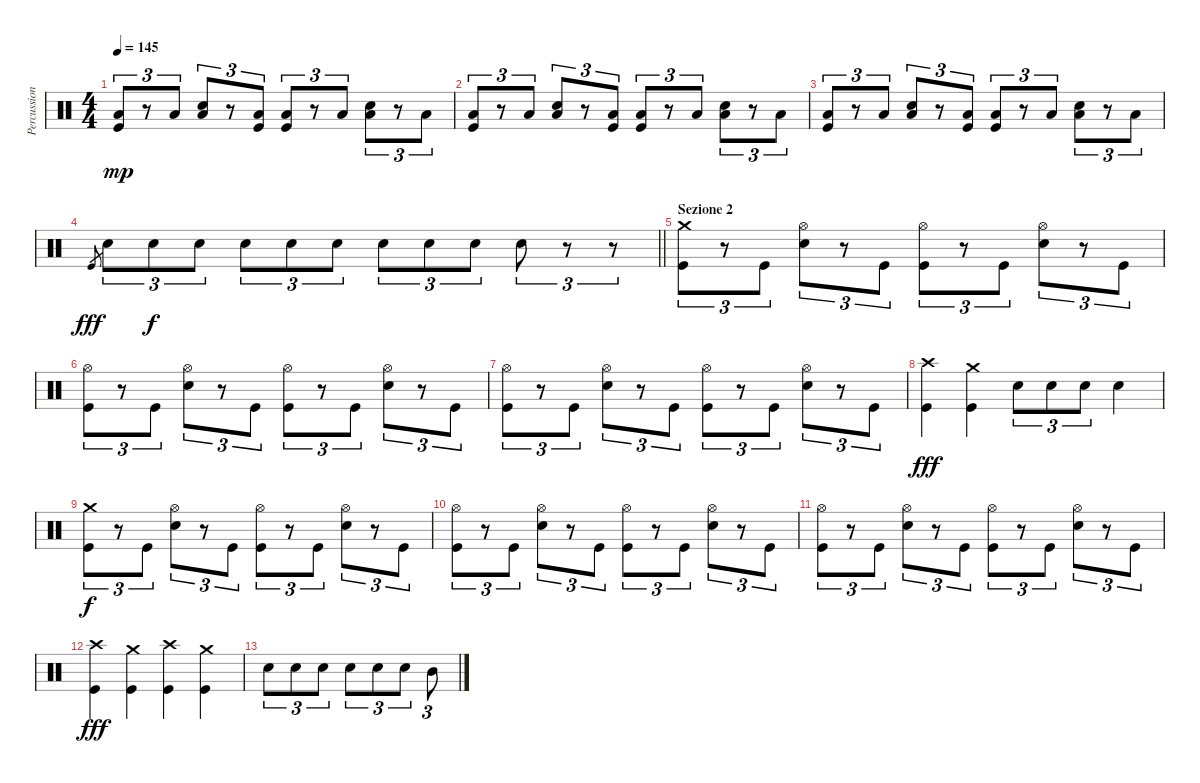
\track ("Percussioni" "Percussion") {instrument percussion}
\staff {score}
\articulation defaults
\ts (4 4)
\tempo 145
\clef neutral
\ks c
("Low Floor Tom (hit)" "Kick (hit)").8{tu (3 2) dy mp} r.8{tu (3 2)} "Low Floor Tom (hit)".8{tu (3 2)} ("Low Floor Tom (hit)" "Snare (hit) 2").8{tu (3 2)} r.8{tu (3 2)} ("Low Floor Tom (hit)" "Kick (hit)").8{tu (3 2)} ("Low Floor Tom (hit)" "Kick (hit)").8{tu (3 2)} r.8{tu (3 2)} "Low Floor Tom (hit)".8{tu (3 2)} ("Low Floor Tom (hit)" "Snare (hit) 2").8{tu (3 2)} r.8{tu (3 2)} "Low Floor Tom (hit)".8{tu (3 2)} |
("Low Floor Tom (hit)" "Kick (hit)").8{tu (3 2)} r.8{tu (3 2)} "Low Floor Tom (hit)".8{tu (3 2)} ("Low Floor Tom (hit)" "Snare (hit) 2").8{tu (3 2)} r.8{tu (3 2)} ("Low Floor Tom (hit)" "Kick (hit)").8{tu (3 2)} ("Low Floor Tom (hit)" "Kick (hit)").8{tu (3 2)} r.8{tu (3 2)} "Low Floor Tom (hit)".8{tu (3 2)} ("Low Floor Tom (hit)" "Snare (hit) 2").8{tu (3 2)} r.8{tu (3 2)} "Low Floor Tom (hit)".8{tu (3 2)} |
("Low Floor Tom (hit)" "Kick (hit)").8{tu (3 2)} r.8{tu (3 2)} "Low Floor Tom (hit)".8{tu (3 2)} ("Low Floor Tom (hit)" "Snare (hit) 2").8{tu (3 2)} r.8{tu (3 2)} ("Low Floor Tom (hit)" "Kick (hit)").8{tu (3 2)} ("Low Floor Tom (hit)" "Kick (hit)").8{tu (3 2)} r.8{tu (3 2)} "Low Floor Tom (hit)".8{tu (3 2)} ("Low Floor Tom (hit)" "Snare (hit) 2").8{tu (3 2)} r.8{tu (3 2)} "Low Floor Tom (hit)".8{tu (3 2)} |
\barLineRight lightlight "Kick (hit)".8{gr dy fff} "Snare (hit) 2".8{tu (3 2)} "Snare (hit) 2".8{tu (3 2) dy f} "Snare (hit) 2".8{tu (3 2)} "Snare (hit) 2".8{tu (3 2)} "Snare (hit) 2".8{tu (3 2)} "Snare (hit) 2".8{tu (3 2)} "Snare (hit) 2".8{tu (3 2)} "Snare (hit) 2".8{tu (3 2)} "Snare (hit) 2".8{tu (3 2)} "Snare (hit) 2".8{tu (3 2)}
r.8{tu (3 2)} r.8{tu (3 2)} |
\section ("" "Sezione 2")
("Crash medium (hit)" "Kick (hit)").8{tu (3 2)} r.8{tu (3 2)} "Kick (hit)".8{tu (3 2)} ("Hi-Hat (open)" "Snare (hit) 2").8{tu (3 2)} r.8{tu (3 2)} "Kick (hit)".8{tu (3 2)} ("Hi-Hat (open)" "Kick (hit)").8{tu (3 2)} r.8{tu (3 2)} "Kick (hit)".8{tu (3 2)} ("Hi-Hat (open)" "Snare (hit) 2").8{tu (3 2)} r.8{tu (3 2)} "Kick (hit)".8{tu (3 2)} |
("Hi-Hat (open)" "Kick (hit)").8{tu (3 2)} r.8{tu (3 2)} "Kick (hit)".8{tu (3 2)} ("Hi-Hat (open)" "Snare (hit) 2").8{tu (3 2)} r.8{tu (3 2)} "Kick (hit)".8{tu (3 2)} ("Hi-Hat (open)" "Kick (hit)").8{tu (3 2)} r.8{tu (3 2)} "Kick (hit)".8{tu (3 2)} ("Hi-Hat (open)" "Snare (hit) 2").8{tu (3 2)} r.8{tu (3 2)} "Kick (hit)".8{tu (3 2)} |
("Hi-Hat (open)" "Kick (hit)").8{tu (3 2)} r.8{tu (3 2)} "Kick (hit)".8{tu (3 2)} ("Hi-Hat (open)" "Snare (hit) 2").8{tu (3 2)} r.8{tu (3 2)} "Kick (hit)".8{tu (3 2)} ("Hi-Hat (open)" "Kick (hit)").8{tu (3 2)} r.8{tu (3 2)} "Kick (hit)".8{tu (3 2)} ("Hi-Hat (open)" "Snare (hit) 2").8{tu (3 2)} r.8{tu (3 2)} "Kick (hit)".8{tu (3 2)} |
("Crash high (hit)" "Kick (hit)").4{dy fff} ("Crash medium (hit)" "Kick (hit)").4 "Snare (hit) 2".8{tu (3 2)} "Snare (hit) 2".8{tu (3 2)} "Snare (hit) 2".8{tu (3 2)} "Snare (hit) 2".4 |
("Crash medium (hit)" "Kick (hit)").8{tu (3 2) dy f} r.8{tu (3 2)} "Kick (hit)".8{tu (3 2)} ("Hi-Hat (open)" "Snare (hit) 2").8{tu (3 2)} r.8{tu (3 2)} "Kick (hit)".8{tu (3 2)} ("Hi-Hat (open)" "Kick (hit)").8{tu (3 2)} r.8{tu (3 2)} "Kick (hit)".8{tu (3 2)} ("Hi-Hat (open)" "Snare (hit) 2").8{tu (3 2)} r.8{tu (3 2)} "Kick (hit)".8{tu (3 2)} |
("Hi-Hat (open)" "Kick (hit)").8{tu (3 2)} r.8{tu (3 2)} "Kick (hit)".8{tu (3 2)} ("Hi-Hat (open)" "Snare (hit) 2").8{tu (3 2)} r.8{tu (3 2)} "Kick (hit)".8{tu (3 2)} ("Hi-Hat (open)" "Kick (hit)").8{tu (3 2)} r.8{tu (3 2)} "Kick (hit)".8{tu (3 2)} ("Hi-Hat (open)" "Snare (hit) 2").8{tu (3 2)} r.8{tu (3 2)} "Kick (hit)".8{tu (3 2)} |
("Hi-Hat (open)" "Kick (hit)").8{tu (3 2)} r.8{tu (3 2)} "Kick (hit)".8{tu (3 2)} ("Hi-Hat (open)" "Snare (hit) 2").8{tu (3 2)} r.8{tu (3 2)} "Kick (hit)".8{tu (3 2)} ("Hi-Hat (open)" "Kick (hit)").8{tu (3 2)} r.8{tu (3 2)} "Kick (hit)".8{tu (3 2)} ("Hi-Hat (open)" "Snare (hit) 2").8{tu (3 2)} r.8{tu (3 2)} "Kick (hit)".8{tu (3 2)} |
("Crash high (hit)" "Kick (hit)").4{dy fff} ("Crash medium (hit)" "Kick (hit)").4 ("Crash high (hit)" "Kick (hit)").4 ("Crash medium (hit)" "Kick (hit)").4 |
"Snare (hit) 2".8{tu (3 2)} "Snare (hit) 2".8{tu (3 2)} "Snare (hit) 2".8{tu (3 2)} "Snare (hit) 2".8{tu (3 2)} "Snare (hit) 2".8{tu (3 2)} "Snare (hit) 2".8{tu (3 2)} "Mid Tom (hit)".8{tu (3 2)}
